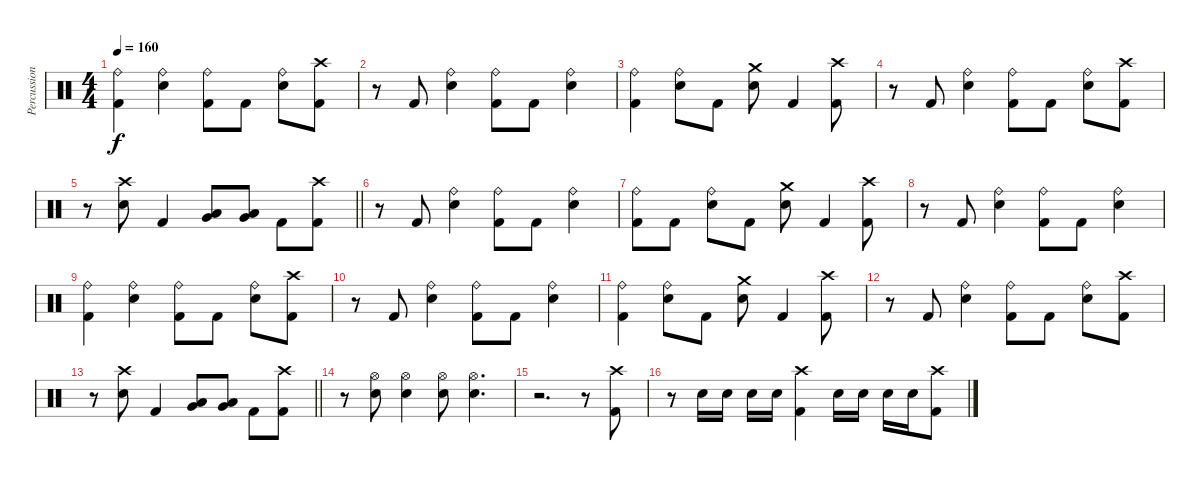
\track ("Percussion" "Percussion") {instrument percussion}
\staff {score}
\articulation defaults
\ts (4 4)
\tempo 160
\clef neutral
\ks c
("Ride (bell)" "Kick (hit) 2").4{dy f} ("Ride (bell)" "Electric Snare (hit)").4 ("Ride (bell)" "Kick (hit) 2").8 "Kick (hit) 2".8 ("Ride (bell)" "Electric Snare (hit)").8 ("Crash high (hit)" "Kick (hit) 2").8 |
r.8 "Kick (hit) 2".8 ("Ride (bell)" "Electric Snare (hit)").4 ("Ride (bell)" "Kick (hit) 2").8 "Kick (hit) 2".8 ("Ride (bell)" "Electric Snare (hit)").4 |
("Ride (bell)" "Kick (hit) 2").4 ("Ride (bell)" "Electric Snare (hit)").8 "Kick (hit) 2".8 ("Crash medium (hit)" "Electric Snare (hit)").8 "Kick (hit) 2".4 ("Crash high (hit)" "Kick (hit) 2").8 |
r.8 "Kick (hit) 2".8 ("Ride (bell)" "Electric Snare (hit)").4 ("Ride (bell)" "Kick (hit) 2").8 "Kick (hit) 2".8 ("Ride (bell)" "Electric Snare (hit)").8 ("Crash high (hit)" "Kick (hit) 2").8 |
\barLineRight lightlight
r.8 ("Crash high (hit)" "Electric Snare (hit)").8 "Kick (hit) 2".4 ("Very Low Tom (hit)" "Low Floor Tom (hit)").8 ("Very Low Tom (hit)" "Low Floor Tom (hit)").8 "Kick (hit) 2".8 ("Crash high (hit)" "Kick (hit) 2").8 |
r.8 "Kick (hit) 2".8 ("Ride (bell)" "Electric Snare (hit)").4 ("Ride (bell)" "Kick (hit) 2").8 "Kick (hit) 2".8 ("Ride (bell)" "Electric Snare (hit)").4 |
("Ride (bell)" "Kick (hit) 2").8 "Kick (hit) 2".8 ("Ride (bell)" "Electric Snare (hit)").8 "Kick (hit) 2".8 ("Crash medium (hit)" "Electric Snare (hit)").8 "Kick (hit) 2".4 ("Crash high (hit)" "Kick (hit) 2").8 |
r.8 "Kick (hit) 2".8 ("Ride (bell)" "Electric Snare (hit)").4 ("Ride (bell)" "Kick (hit) 2").8 "Kick (hit) 2".8 ("Ride (bell)" "Electric Snare (hit)").4 |
("Ride (bell)" "Kick (hit) 2").4 ("Ride (bell)" "Electric Snare (hit)").4 ("Ride (bell)" "Kick (hit) 2").8 "Kick (hit) 2".8 ("Ride (bell)" "Electric Snare (hit)").8 ("Crash high (hit)" "Kick (hit) 2").8 |
r.8 "Kick (hit) 2".8 ("Ride (bell)" "Electric Snare (hit)").4 ("Ride (bell)" "Kick (hit) 2").8 "Kick (hit) 2".8 ("Ride (bell)" "Electric Snare (hit)").4 |
("Ride (bell)" "Kick (hit) 2").4 ("Ride (bell)" "Electric Snare (hit)").8 "Kick (hit) 2".8 ("Crash medium (hit)" "Electric Snare (hit)").8 "Kick (hit) 2".4 ("Crash high (hit)" "Kick (hit) 2").8 |
r.8 "Kick (hit) 2".8 ("Ride (bell)" "Electric Snare (hit)").4 ("Ride (bell)" "Kick (hit) 2").8 "Kick (hit) 2".8 ("Ride (bell)" "Electric Snare (hit)").8 ("Crash high (hit)" "Kick (hit) 2").8 |
\barLineRight lightlight
r.8 ("Crash high (hit)" "Electric Snare (hit)").8 "Kick (hit) 2".4 ("Very Low Tom (hit)" "Low Floor Tom (hit)").8 ("Very Low Tom (hit)" "Low Floor Tom (hit)").8 "Kick (hit) 2".8 ("Crash high (hit)" "Kick (hit) 2").8 |
r.8 ("Hi-Hat (open)" "Electric Snare (hit)").8 ("Hi-Hat (open)" "Electric Snare (hit)").4 ("Hi-Hat (open)" "Electric Snare (hit)").8 ("Hi-Hat (open)" "Electric Snare (hit)").4{d} |
r.2{d} r.8 ("Crash high (hit)" "Kick (hit) 2").8 |
r.8 "Electric Snare (hit)".16 "Electric Snare (hit)".16 "Electric Snare (hit)".16 "Electric Snare (hit)".16 ("Crash high (hit)" "Kick (hit) 2").4 "Electric Snare (hit)".16 "Electric Snare (hit)".16 "Electric Snare (hit)".16 "Electric Snare (hit)".16 ("Crash high (hit)" "Kick (hit) 2").8
